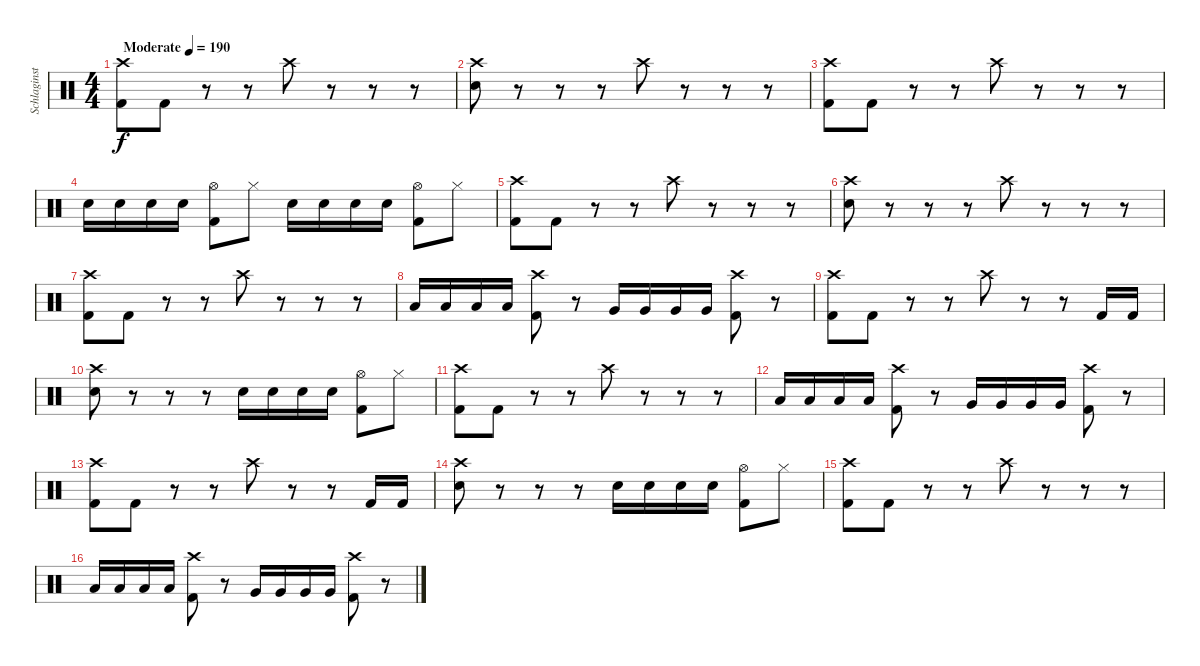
\track ("Schlaginstrumente - Auswahl" "Schlaginst") {instrument percussion}
\staff {score}
\articulation defaults
\ts (4 4)
\tempo (190 "Moderate")
\clef neutral
\ks c
("Crash high (hit)" "Kick (hit) 2").8{dy f} "Kick (hit) 2".8 r.8 r.8 "Crash high (hit)".8 r.8 r.8 r.8 |
("Crash high (hit)" "Electric Snare (hit)").8 r.8 r.8 r.8 "Crash high (hit)".8 r.8 r.8 r.8 |
("Crash high (hit)" "Kick (hit) 2").8 "Kick (hit) 2".8 r.8 r.8 "Crash high (hit)".8 r.8 r.8 r.8 |
"Electric Snare (hit)".16 "Electric Snare (hit)".16 "Electric Snare (hit)".16 "Electric Snare (hit)".16 ("Hi-Hat (open)" "Kick (hit) 2").8 "Hi-Hat (closed)".8 "Electric Snare (hit)".16 "Electric Snare (hit)".16 "Electric Snare (hit)".16 "Electric Snare (hit)".16 ("Hi-Hat (open)" "Kick (hit) 2").8 "Hi-Hat (closed)".8 |
("Crash high (hit)" "Kick (hit) 2").8 "Kick (hit) 2".8 r.8 r.8 "Crash high (hit)".8 r.8 r.8 r.8 |
("Crash high (hit)" "Electric Snare (hit)").8 r.8 r.8 r.8 "Crash high (hit)".8 r.8 r.8 r.8 |
("Crash high (hit)" "Kick (hit) 2").8 "Kick (hit) 2".8 r.8 r.8 "Crash high (hit)".8 r.8 r.8 r.8 |
"Low Tom (hit)".16 "Low Tom (hit)".16 "Low Tom (hit)".16 "Low Tom (hit)".16 ("Crash high (hit)" "Kick (hit) 2").8 r.8 "Very Low Tom (hit)".16 "Very Low Tom (hit)".16 "Very Low Tom (hit)".16 "Very Low Tom (hit)".16 ("Crash high (hit)" "Kick (hit) 2").8 r.8 |
("Crash high (hit)" "Kick (hit) 2").8 "Kick (hit) 2".8 r.8 r.8 "Crash high (hit)".8 r.8 r.8 "Kick (hit) 2".16 "Kick (hit) 2".16 |
("Crash high (hit)" "Electric Snare (hit)").8 r.8 r.8 r.8 "Electric Snare (hit)".16 "Electric Snare (hit)".16 "Electric Snare (hit)".16 "Electric Snare (hit)".16 ("Hi-Hat (open)" "Kick (hit) 2").8 "Hi-Hat (closed)".8 |
("Crash high (hit)" "Kick (hit) 2").8 "Kick (hit) 2".8 r.8 r.8 "Crash high (hit)".8 r.8 r.8 r.8 |
"Low Tom (hit)".16 "Low Tom (hit)".16 "Low Tom (hit)".16 "Low Tom (hit)".16 ("Crash high (hit)" "Kick (hit) 2").8 r.8 "Very Low Tom (hit)".16 "Very Low Tom (hit)".16 "Very Low Tom (hit)".16 "Very Low Tom (hit)".16 ("Crash high (hit)" "Kick (hit) 2").8 r.8 |
("Crash high (hit)" "Kick (hit) 2").8 "Kick (hit) 2".8 r.8 r.8 "Crash high (hit)".8 r.8 r.8 "Kick (hit) 2".16 "Kick (hit) 2".16 |
("Crash high (hit)" "Electric Snare (hit)").8 r.8 r.8 r.8 "Electric Snare (hit)".16 "Electric Snare (hit)".16 "Electric Snare (hit)".16 "Electric Snare (hit)".16 ("Hi-Hat (open)" "Kick (hit) 2").8 "Hi-Hat (closed)".8 |
("Crash high (hit)" "Kick (hit) 2").8 "Kick (hit) 2".8 r.8 r.8 "Crash high (hit)".8 r.8 r.8 r.8 |
"Low Tom (hit)".16 "Low Tom (hit)".16 "Low Tom (hit)".16 "Low Tom (hit)".16 ("Crash high (hit)" "Kick (hit) 2").8 r.8 "Very Low Tom (hit)".16 "Very Low Tom (hit)".16 "Very Low Tom (hit)".16 "Very Low Tom (hit)".16 ("Crash high (hit)" "Kick (hit) 2").8 r.8
